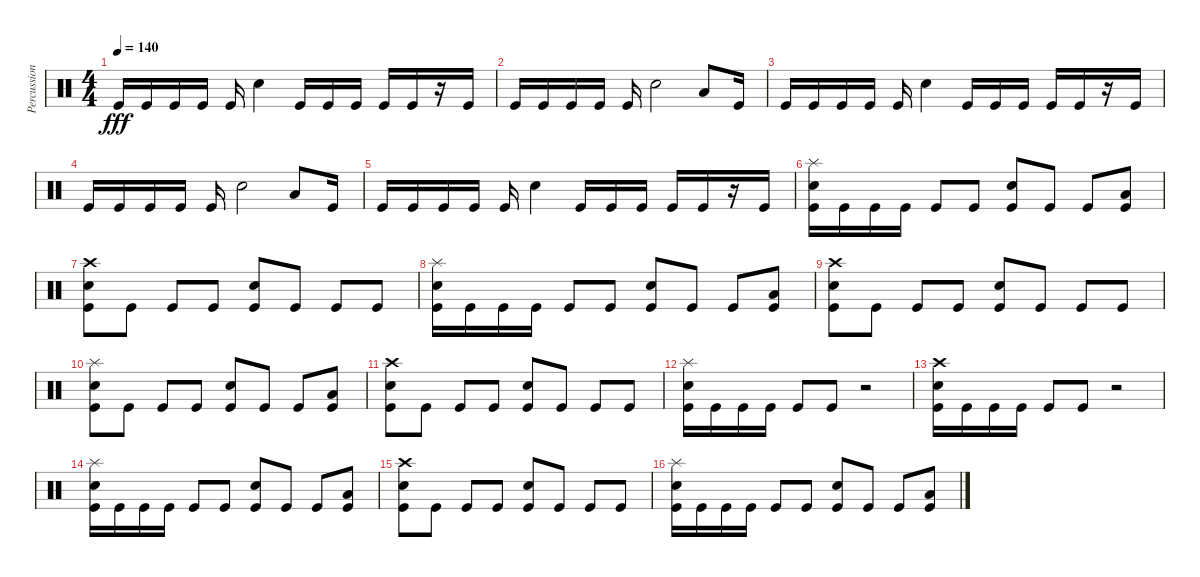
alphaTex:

\track ("Percussion" "Percussion") {instrument percussion}
\staff {score}
\articulation defaults
\ts (4 4)
\tempo 140
\clef neutral
\ks c "Kick (hit)".16{dy fff} "Kick (hit)".16 "Kick (hit)".16 "Kick (hit)".16 "Kick (hit)".16 "Snare (hit) 2".4 "Kick (hit)".16 "Kick (hit)".16 "Kick (hit)".16 "Kick (hit)".16 "Kick (hit)".16
r.16 "Kick (hit)".16 |
"Kick (hit)".16 "Kick (hit)".16 "Kick (hit)".16 "Kick (hit)".16 "Kick (hit)".16 "Snare (hit) 2".2 "Low Floor Tom (hit)".8 "Kick (hit)".16 |
"Kick (hit)".16 "Kick (hit)".16 "Kick (hit)".16 "Kick (hit)".16 "Kick (hit)".16 "Snare (hit) 2".4 "Kick (hit)".16 "Kick (hit)".16 "Kick (hit)".16 "Kick (hit)".16 "Kick (hit)".16 r.16 "Kick (hit)".16 |
"Kick (hit)".16 "Kick (hit)".16 "Kick (hit)".16 "Kick (hit)".16 "Kick (hit)".16 "Snare (hit) 2".2 "Low Floor Tom (hit)".8 "Kick (hit)".16 |
"Kick (hit)".16 "Kick (hit)".16 "Kick (hit)".16 "Kick (hit)".16 "Kick (hit)".16 "Snare (hit) 2".4 "Kick (hit)".16 "Kick (hit)".16 "Kick (hit)".16 "Kick (hit)".16 "Kick (hit)".16 r.16 "Kick (hit)".16 |
("Splash (hit)" "Snare (hit) 2" "Kick (hit)").16 "Kick (hit)".16 "Kick (hit)".16 "Kick (hit)".16 "Kick (hit)".8 "Kick (hit)".8 ("Snare (hit) 2" "Kick (hit)").8 "Kick (hit)".8 "Kick (hit)".8 ("Low Floor Tom (hit)" "Kick (hit)").8 |
("Crash high (hit)" "Snare (hit) 2" "Kick (hit)").8 "Kick (hit)".8 "Kick (hit)".8 "Kick (hit)".8 ("Snare (hit) 2" "Kick (hit)").8 "Kick (hit)".8 "Kick (hit)".8 "Kick (hit)".8 |
("Splash (hit)" "Snare (hit) 2" "Kick (hit)").16 "Kick (hit)".16 "Kick (hit)".16 "Kick (hit)".16 "Kick (hit)".8 "Kick (hit)".8 ("Snare (hit) 2" "Kick (hit)").8 "Kick (hit)".8 "Kick (hit)".8 ("Low Floor Tom (hit)" "Kick (hit)").8 |
("Crash high (hit)" "Snare (hit) 2" "Kick (hit)").8 "Kick (hit)".8 "Kick (hit)".8 "Kick (hit)".8 ("Snare (hit) 2" "Kick (hit)").8 "Kick (hit)".8 "Kick (hit)".8 "Kick (hit)".8 |
("Splash (hit)" "Snare (hit) 2" "Kick (hit)").8 "Kick (hit)".8 "Kick (hit)".8 "Kick (hit)".8 ("Snare (hit) 2" "Kick (hit)").8 "Kick (hit)".8 "Kick (hit)".8 ("Low Floor Tom (hit)" "Kick (hit)").8 |
("Crash high (hit)" "Snare (hit) 2" "Kick (hit)").8 "Kick (hit)".8 "Kick (hit)".8 "Kick (hit)".8 ("Snare (hit) 2" "Kick (hit)").8 "Kick (hit)".8 "Kick (hit)".8 "Kick (hit)".8 |
("Splash (hit)" "Snare (hit) 2" "Kick (hit)").16 "Kick (hit)".16 "Kick (hit)".16 "Kick (hit)".16 "Kick (hit)".8 "Kick (hit)".8 r.2 |
("Crash high (hit)" "Snare (hit) 2" "Kick (hit)").16 "Kick (hit)".16 "Kick (hit)".16 "Kick (hit)".16 "Kick (hit)".8 "Kick (hit)".8 r.2 |
("Splash (hit)" "Snare (hit) 2" "Kick (hit)").16 "Kick (hit)".16 "Kick (hit)".16 "Kick (hit)".16 "Kick (hit)".8 "Kick (hit)".8 ("Snare (hit) 2" "Kick (hit)").8 "Kick (hit)".8 "Kick (hit)".8 ("Low Floor Tom (hit)" "Kick (hit)").8 |
("Crash high (hit)" "Snare (hit) 2" "Kick (hit)").8 "Kick (hit)".8 "Kick (hit)".8 "Kick (hit)".8 ("Snare (hit) 2" "Kick (hit)").8 "Kick (hit)".8 "Kick (hit)".8 "Kick (hit)".8 |
("Splash (hit)" "Snare (hit) 2" "Kick (hit)").16 "Kick (hit)".16 "Kick (hit)".16 "Kick (hit)".16 "Kick (hit)".8 "Kick (hit)".8 ("Snare (hit) 2" "Kick (hit)").8 "Kick (hit)".8 "Kick (hit)".8 ("Low Floor Tom (hit)" "Kick (hit)").8
